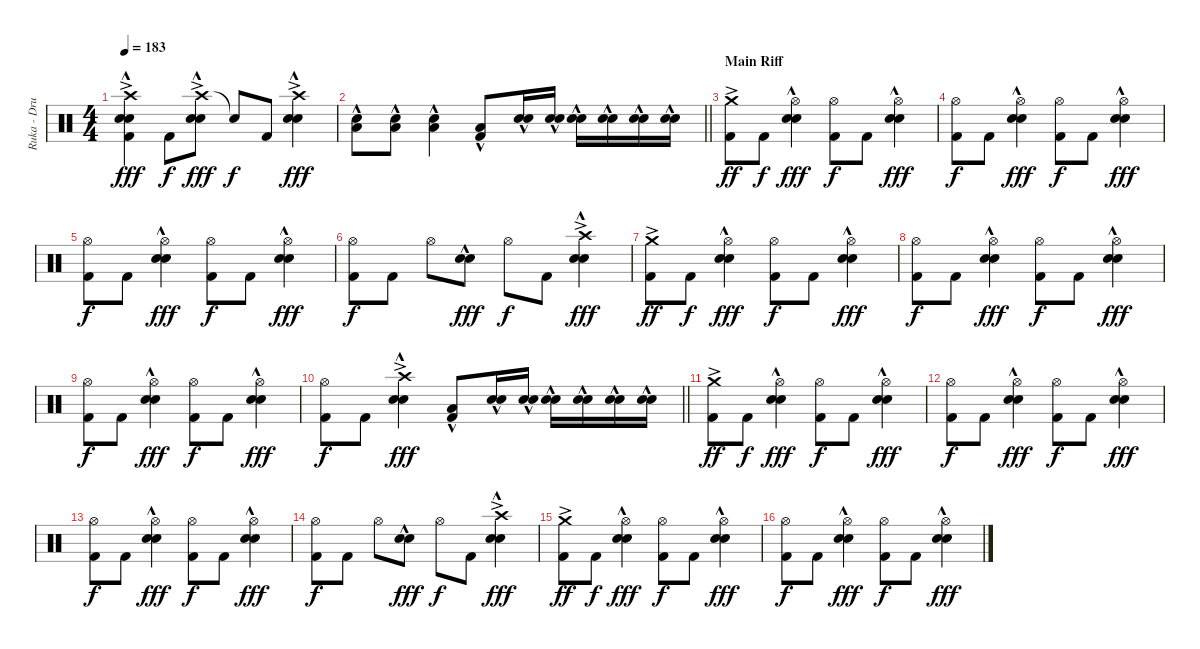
\track ("Ruka - Drums" "Ruka - Dru") {instrument percussion}
\staff {score}
\articulation defaults
\ts (4 4)
\tempo 183
\clef neutral
\ks c
("Crash high (hit)"{ac} "Electric Snare (hit)"{hac} "Snare (hit) 2"{hac} "Kick (hit) 2").4{dy fff} "Kick (hit) 2".8{dy f} ("Crash high (hit)"{ac} "Electric Snare (hit)"{hac} "Snare (hit) 2"{hac}).8{dy fff} "Snare (hit)"{t}.8{dy f} "Kick (hit) 2".8 ("Crash high (hit)"{ac} "Electric Snare (hit)"{hac} "Snare (hit) 2"{hac}).4{dy fff} |
\barLineRight lightlight
("Electric Snare (hit)" "Low Tom (hit)"{hac}).8 ("Electric Snare (hit)" "Low Tom (hit)"{hac}).8 ("Electric Snare (hit)" "Low Tom (hit)"{hac}).4 ("Low Tom (hit)"{hac} "Kick (hit) 2").8 ("Electric Snare (hit)"{hac} "Snare (hit) 2"{hac}).16 ("Electric Snare (hit)"{hac} "Snare (hit) 2"{hac}).16 ("Electric Snare (hit)"{hac} "Snare (hit) 2"{hac}).16 ("Electric Snare (hit)"{hac} "Snare (hit) 2"{hac}).16 ("Electric Snare (hit)"{hac} "Snare (hit) 2"{hac}).16 ("Electric Snare (hit)"{hac} "Snare (hit) 2"{hac}).16 |
\section ("" "Main Riff")
("Crash medium (hit)"{ac} "Kick (hit) 2").8{dy ff} "Kick (hit) 2".8{dy f} ("Hi-Hat (open)" "Electric Snare (hit)"{hac} "Snare (hit) 2"{hac}).4{dy fff} ("Hi-Hat (open)" "Kick (hit) 2").8{dy f} "Kick (hit) 2".8 ("Hi-Hat (open)" "Electric Snare (hit)"{hac} "Snare (hit) 2"{hac}).4{dy fff} |
("Hi-Hat (open)" "Kick (hit) 2").8{dy f} "Kick (hit) 2".8 ("Hi-Hat (open)" "Electric Snare (hit)"{hac} "Snare (hit) 2"{hac}).4{dy fff} ("Hi-Hat (open)" "Kick (hit) 2").8{dy f} "Kick (hit) 2".8 ("Hi-Hat (open)" "Electric Snare (hit)"{hac} "Snare (hit) 2"{hac}).4{dy fff} |
("Hi-Hat (open)" "Kick (hit) 2").8{dy f} "Kick (hit) 2".8 ("Hi-Hat (open)" "Electric Snare (hit)"{hac} "Snare (hit) 2"{hac}).4{dy fff} ("Hi-Hat (open)" "Kick (hit) 2").8{dy f} "Kick (hit) 2".8 ("Hi-Hat (open)" "Electric Snare (hit)"{hac} "Snare (hit) 2"{hac}).4{dy fff} |
("Hi-Hat (open)" "Kick (hit) 2").8{dy f} "Kick (hit) 2".8 "Hi-Hat (open)".8 ("Electric Snare (hit)"{hac} "Snare (hit) 2"{hac}).8{dy fff} "Hi-Hat (open)".8{dy f} "Kick (hit) 2".8 ("Crash high (hit)"{ac} "Electric Snare (hit)"{hac} "Snare (hit) 2"{hac}).4{dy fff} |
("Crash medium (hit)"{ac} "Kick (hit) 2").8{dy ff} "Kick (hit) 2".8{dy f} ("Hi-Hat (open)" "Electric Snare (hit)"{hac} "Snare (hit) 2"{hac}).4{dy fff} ("Hi-Hat (open)" "Kick (hit) 2").8{dy f} "Kick (hit) 2".8 ("Hi-Hat (open)" "Electric Snare (hit)"{hac} "Snare (hit) 2"{hac}).4{dy fff} |
("Hi-Hat (open)" "Kick (hit) 2").8{dy f} "Kick (hit) 2".8 ("Hi-Hat (open)" "Electric Snare (hit)"{hac} "Snare (hit) 2"{hac}).4{dy fff} ("Hi-Hat (open)" "Kick (hit) 2").8{dy f} "Kick (hit) 2".8 ("Hi-Hat (open)" "Electric Snare (hit)"{hac} "Snare (hit) 2"{hac}).4{dy fff} |
("Hi-Hat (open)" "Kick (hit) 2").8{dy f} "Kick (hit) 2".8 ("Hi-Hat (open)" "Electric Snare (hit)"{hac} "Snare (hit) 2"{hac}).4{dy fff} ("Hi-Hat (open)" "Kick (hit) 2").8{dy f} "Kick (hit) 2".8 ("Hi-Hat (open)" "Electric Snare (hit)"{hac} "Snare (hit) 2"{hac}).4{dy fff} |
\barLineRight lightlight
("Hi-Hat (open)" "Kick (hit) 2").8{dy f} "Kick (hit) 2".8 ("Crash high (hit)"{ac} "Electric Snare (hit)"{hac} "Snare (hit) 2"{hac}).4{dy fff} ("Low Tom (hit)"{hac} "Kick (hit) 2").8 ("Electric Snare (hit)"{hac} "Snare (hit) 2"{hac}).16 ("Electric Snare (hit)"{hac} "Snare (hit) 2"{hac}).16 ("Electric Snare (hit)"{hac} "Snare (hit) 2"{hac}).16 ("Electric Snare (hit)"{hac} "Snare (hit) 2"{hac}).16 ("Electric Snare (hit)"{hac} "Snare (hit) 2"{hac}).16 ("Electric Snare (hit)"{hac} "Snare (hit) 2"{hac}).16 |
\section ("" "")
("Crash medium (hit)"{ac} "Kick (hit) 2").8{dy ff} "Kick (hit) 2".8{dy f} ("Hi-Hat (open)" "Electric Snare (hit)"{hac} "Snare (hit) 2"{hac}).4{dy fff} ("Hi-Hat (open)" "Kick (hit) 2").8{dy f} "Kick (hit) 2".8 ("Hi-Hat (open)" "Electric Snare (hit)"{hac} "Snare (hit) 2"{hac}).4{dy fff} |
("Hi-Hat (open)" "Kick (hit) 2").8{dy f} "Kick (hit) 2".8 ("Hi-Hat (open)" "Electric Snare (hit)"{hac} "Snare (hit) 2"{hac}).4{dy fff} ("Hi-Hat (open)" "Kick (hit) 2").8{dy f} "Kick (hit) 2".8 ("Hi-Hat (open)" "Electric Snare (hit)"{hac} "Snare (hit) 2"{hac}).4{dy fff} |
("Hi-Hat (open)" "Kick (hit) 2").8{dy f} "Kick (hit) 2".8 ("Hi-Hat (open)" "Electric Snare (hit)"{hac} "Snare (hit) 2"{hac}).4{dy fff} ("Hi-Hat (open)" "Kick (hit) 2").8{dy f} "Kick (hit) 2".8 ("Hi-Hat (open)" "Electric Snare (hit)"{hac} "Snare (hit) 2"{hac}).4{dy fff} |
("Hi-Hat (open)" "Kick (hit) 2").8{dy f} "Kick (hit) 2".8 "Hi-Hat (open)".8 ("Electric Snare (hit)"{hac} "Snare (hit) 2"{hac}).8{dy fff} "Hi-Hat (open)".8{dy f} "Kick (hit) 2".8 ("Crash high (hit)"{ac} "Electric Snare (hit)"{hac} "Snare (hit) 2"{hac}).4{dy fff} |
("Crash medium (hit)"{ac} "Kick (hit) 2").8{dy ff} "Kick (hit) 2".8{dy f} ("Hi-Hat (open)" "Electric Snare (hit)"{hac} "Snare (hit) 2"{hac}).4{dy fff} ("Hi-Hat (open)" "Kick (hit) 2").8{dy f} "Kick (hit) 2".8 ("Hi-Hat (open)" "Electric Snare (hit)"{hac} "Snare (hit) 2"{hac}).4{dy fff} |
("Hi-Hat (open)" "Kick (hit) 2").8{dy f} "Kick (hit) 2".8 ("Hi-Hat (open)" "Electric Snare (hit)"{hac} "Snare (hit) 2"{hac}).4{dy fff} ("Hi-Hat (open)" "Kick (hit) 2").8{dy f} "Kick (hit) 2".8 ("Hi-Hat (open)" "Electric Snare (hit)"{hac} "Snare (hit) 2"{hac}).4{dy fff}
